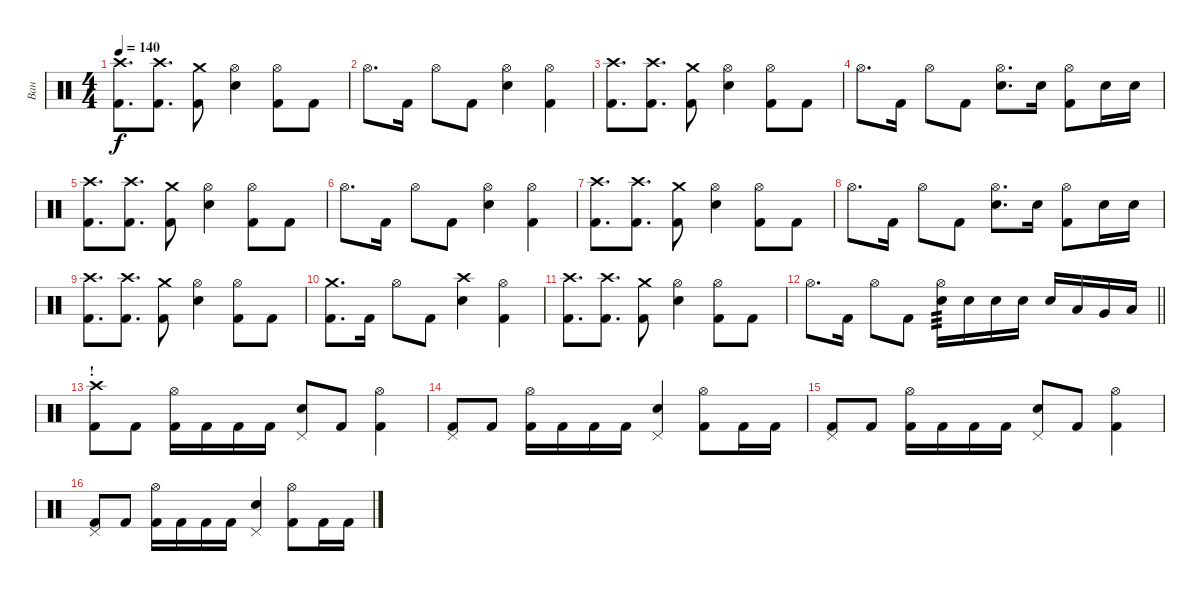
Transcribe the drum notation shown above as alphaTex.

\track ("Ван" "Ван") {instrument percussion}
\staff {score}
\articulation defaults
\ts (4 4)
\tempo 140
\clef neutral
\ks c
("Crash high (hit)" "Kick (hit) 2").8{d dy f} ("Crash high (hit)" "Kick (hit) 2").8{d} ("Crash medium (hit)" "Kick (hit) 2").8 ("Hi-Hat (open)" "Snare (hit) 2").4 ("Hi-Hat (open)" "Kick (hit) 2").8 "Kick (hit) 2".8 |
"Hi-Hat (open)".8{d} "Kick (hit) 2".16 "Hi-Hat (open)".8 "Kick (hit) 2".8 ("Hi-Hat (open)" "Snare (hit) 2").4 ("Hi-Hat (open)" "Kick (hit) 2").4 |
("Crash high (hit)" "Kick (hit) 2").8{d} ("Crash high (hit)" "Kick (hit) 2").8{d} ("Crash medium (hit)" "Kick (hit) 2").8 ("Hi-Hat (open)" "Snare (hit) 2").4 ("Hi-Hat (open)" "Kick (hit) 2").8 "Kick (hit) 2".8 |
"Hi-Hat (open)".8{d} "Kick (hit) 2".16 "Hi-Hat (open)".8 "Kick (hit) 2".8 ("Hi-Hat (open)" "Snare (hit) 2").8{d} "Snare (hit) 2".16 ("Hi-Hat (open)" "Kick (hit) 2").8 "Snare (hit) 2".16 "Snare (hit) 2".16 |
("Crash high (hit)" "Kick (hit) 2").8{d} ("Crash high (hit)" "Kick (hit) 2").8{d} ("Crash medium (hit)" "Kick (hit) 2").8 ("Hi-Hat (open)" "Snare (hit) 2").4 ("Hi-Hat (open)" "Kick (hit) 2").8 "Kick (hit) 2".8 |
"Hi-Hat (open)".8{d} "Kick (hit) 2".16 "Hi-Hat (open)".8 "Kick (hit) 2".8 ("Hi-Hat (open)" "Snare (hit) 2").4 ("Hi-Hat (open)" "Kick (hit) 2").4 |
("Crash high (hit)" "Kick (hit) 2").8{d} ("Crash high (hit)" "Kick (hit) 2").8{d} ("Crash medium (hit)" "Kick (hit) 2").8 ("Hi-Hat (open)" "Snare (hit) 2").4 ("Hi-Hat (open)" "Kick (hit) 2").8 "Kick (hit) 2".8 |
"Hi-Hat (open)".8{d} "Kick (hit) 2".16 "Hi-Hat (open)".8 "Kick (hit) 2".8 ("Hi-Hat (open)" "Snare (hit) 2").8{d} "Snare (hit) 2".16 ("Hi-Hat (open)" "Kick (hit) 2").8 "Snare (hit) 2".16 "Snare (hit) 2".16 |
("Crash high (hit)" "Kick (hit) 2").8{d} ("Crash high (hit)" "Kick (hit) 2").8{d} ("Crash medium (hit)" "Kick (hit) 2").8 ("Hi-Hat (open)" "Snare (hit) 2").4 ("Hi-Hat (open)" "Kick (hit) 2").8 "Kick (hit) 2".8 |
("Crash medium (hit)" "Kick (hit) 2").8{d} "Kick (hit) 2".16 "Hi-Hat (open)".8 "Kick (hit) 2".8 ("Crash high (hit)" "Snare (hit) 2").4 ("Hi-Hat (open)" "Kick (hit) 2").4 |
("Crash high (hit)" "Kick (hit) 2").8{d} ("Crash high (hit)" "Kick (hit) 2").8{d} ("Crash medium (hit)" "Kick (hit) 2").8 ("Hi-Hat (open)" "Snare (hit) 2").4 ("Hi-Hat (open)" "Kick (hit) 2").8 "Kick (hit) 2".8 |
\barLineRight lightlight "Hi-Hat (open)".8{d} "Kick (hit) 2".16 "Hi-Hat (open)".8 "Kick (hit) 2".8
("Hi-Hat (open)" "Snare (hit) 2").16{tp 3} "Snare (hit) 2".16 "Snare (hit) 2".16 "Snare (hit) 2".16 "Snare (hit) 2".16 "Low Floor Tom (hit)".16 "Very Low Tom (hit)".16 "Low Tom (hit)".16 |
\section ("" "!")
("Crash high (hit)" "Kick (hit) 2").8 "Kick (hit) 2".8 ("Hi-Hat (open)" "Kick (hit) 2").16 "Kick (hit) 2".16 "Kick (hit) 2".16 "Kick (hit) 2".16 ("Pedal Hi-Hat (hit)" "Snare (hit) 2").8 "Kick (hit) 2".8 ("Hi-Hat (open)" "Kick (hit) 2").4 |
("Pedal Hi-Hat (hit)" "Kick (hit) 2").8 "Kick (hit) 2".8 ("Hi-Hat (open)" "Kick (hit) 2").16 "Kick (hit) 2".16 "Kick (hit) 2".16 "Kick (hit) 2".16 ("Pedal Hi-Hat (hit)" "Snare (hit) 2").4 ("Hi-Hat (open)" "Kick (hit) 2").8 "Kick (hit) 2".16 "Kick (hit) 2".16 |
("Pedal Hi-Hat (hit)" "Kick (hit) 2").8 "Kick (hit) 2".8 ("Hi-Hat (open)" "Kick (hit) 2").16 "Kick (hit) 2".16 "Kick (hit) 2".16 "Kick (hit) 2".16 ("Pedal Hi-Hat (hit)" "Snare (hit) 2").8 "Kick (hit) 2".8 ("Hi-Hat (open)" "Kick (hit) 2").4 |
("Pedal Hi-Hat (hit)" "Kick (hit) 2").8 "Kick (hit) 2".8 ("Hi-Hat (open)" "Kick (hit) 2").16 "Kick (hit) 2".16 "Kick (hit) 2".16 "Kick (hit) 2".16 ("Pedal Hi-Hat (hit)" "Snare (hit) 2").4 ("Hi-Hat (open)" "Kick (hit) 2").8 "Kick (hit) 2".16 "Kick (hit) 2".16
